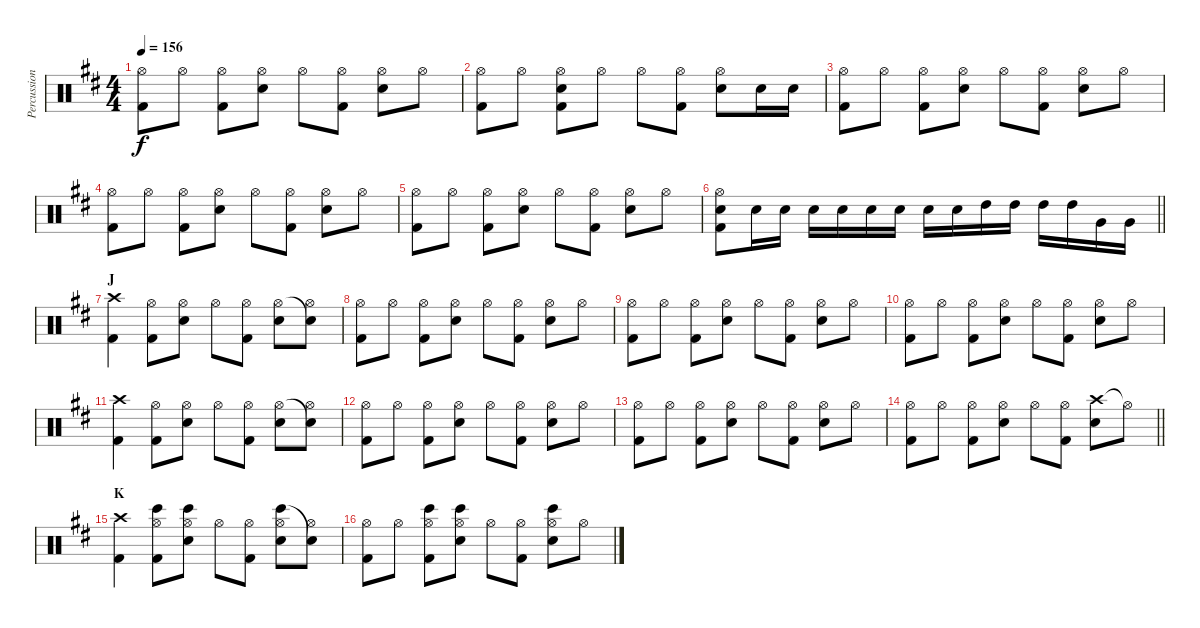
\track ("Percussion" "Percussion") {instrument percussion}
\staff {score}
\articulation defaults
\ts (4 4)
\tempo 156
\clef neutral
\ks d
("Hi-Hat (open)" "Kick (hit) 2").8{dy f} "Hi-Hat (open)".8 ("Hi-Hat (open)" "Kick (hit) 2").8 ("Hi-Hat (open)" "Electric Snare (hit)").8 "Hi-Hat (open)".8 ("Hi-Hat (open)" "Kick (hit) 2").8 ("Hi-Hat (open)" "Electric Snare (hit)").8 "Hi-Hat (open)".8 |
("Hi-Hat (open)" "Kick (hit) 2").8 "Hi-Hat (open)".8 ("Hi-Hat (open)" "Electric Snare (hit)" "Kick (hit) 2").8 "Hi-Hat (open)".8 "Hi-Hat (open)".8 ("Hi-Hat (open)" "Kick (hit) 2").8 ("Hi-Hat (open)" "Electric Snare (hit)").8 "Electric Snare (hit)".16 "Electric Snare (hit)".16 |
("Hi-Hat (open)" "Kick (hit) 2").8 "Hi-Hat (open)".8 ("Hi-Hat (open)" "Kick (hit) 2").8 ("Hi-Hat (open)" "Electric Snare (hit)").8 "Hi-Hat (open)".8 ("Hi-Hat (open)" "Kick (hit) 2").8 ("Hi-Hat (open)" "Electric Snare (hit)").8 "Hi-Hat (open)".8 |
("Hi-Hat (open)" "Kick (hit) 2").8 "Hi-Hat (open)".8 ("Hi-Hat (open)" "Kick (hit) 2").8 ("Hi-Hat (open)" "Electric Snare (hit)").8 "Hi-Hat (open)".8 ("Hi-Hat (open)" "Kick (hit) 2").8 ("Hi-Hat (open)" "Electric Snare (hit)").8 "Hi-Hat (open)".8 |
("Hi-Hat (open)" "Kick (hit) 2").8 "Hi-Hat (open)".8 ("Hi-Hat (open)" "Kick (hit) 2").8 ("Hi-Hat (open)" "Electric Snare (hit)").8 "Hi-Hat (open)".8 ("Hi-Hat (open)" "Kick (hit) 2").8 ("Hi-Hat (open)" "Electric Snare (hit)").8 "Hi-Hat (open)".8 |
\barLineRight lightlight
("Hi-Hat (open)" "Electric Snare (hit)" "Kick (hit) 2").8 "Electric Snare (hit)".16 "Electric Snare (hit)".16 "Electric Snare (hit)".16 "Electric Snare (hit)".16 "Electric Snare (hit)".16 "Electric Snare (hit)".16 "Electric Snare (hit)".16 "Electric Snare (hit)".16 "High Tom (hit)".16 "High Tom (hit)".16 "High Tom (hit)".16 "High Tom (hit)".16 "Very Low Tom (hit)".16 "Very Low Tom (hit)".16 |
\section ("" "J")
("Crash high (hit)" "Kick (hit) 2").4 ("Hi-Hat (open)" "Kick (hit) 2").8 ("Hi-Hat (open)" "Electric Snare (hit)").8 "Hi-Hat (open)".8 ("Hi-Hat (open)" "Kick (hit) 2").8 ("Hi-Hat (open)" "Electric Snare (hit)").8 ("Snare (hit)"{t} "Hi-Hat (open)").8 |
("Hi-Hat (open)" "Kick (hit) 2").8 "Hi-Hat (open)".8 ("Hi-Hat (open)" "Kick (hit) 2").8 ("Hi-Hat (open)" "Electric Snare (hit)").8 "Hi-Hat (open)".8 ("Hi-Hat (open)" "Kick (hit) 2").8 ("Hi-Hat (open)" "Electric Snare (hit)").8 "Hi-Hat (open)".8 |
("Hi-Hat (open)" "Kick (hit) 2").8 "Hi-Hat (open)".8 ("Hi-Hat (open)" "Kick (hit) 2").8 ("Hi-Hat (open)" "Electric Snare (hit)").8 "Hi-Hat (open)".8 ("Hi-Hat (open)" "Kick (hit) 2").8 ("Hi-Hat (open)" "Electric Snare (hit)").8 "Hi-Hat (open)".8 |
("Hi-Hat (open)" "Kick (hit) 2").8 "Hi-Hat (open)".8 ("Hi-Hat (open)" "Kick (hit) 2").8 ("Hi-Hat (open)" "Electric Snare (hit)").8 "Hi-Hat (open)".8 ("Hi-Hat (open)" "Kick (hit) 2").8 ("Hi-Hat (open)" "Electric Snare (hit)").8 "Hi-Hat (open)".8 |
("Crash high (hit)" "Kick (hit) 2").4 ("Hi-Hat (open)" "Kick (hit) 2").8 ("Hi-Hat (open)" "Electric Snare (hit)").8 "Hi-Hat (open)".8 ("Hi-Hat (open)" "Kick (hit) 2").8 ("Hi-Hat (open)" "Electric Snare (hit)").8 ("Snare (hit)"{t} "Hi-Hat (open)").8 |
("Hi-Hat (open)" "Kick (hit) 2").8 "Hi-Hat (open)".8 ("Hi-Hat (open)" "Kick (hit) 2").8 ("Hi-Hat (open)" "Electric Snare (hit)").8 "Hi-Hat (open)".8 ("Hi-Hat (open)" "Kick (hit) 2").8 ("Hi-Hat (open)" "Electric Snare (hit)").8 "Hi-Hat (open)".8 |
("Hi-Hat (open)" "Kick (hit) 2").8 "Hi-Hat (open)".8 ("Hi-Hat (open)" "Kick (hit) 2").8 ("Hi-Hat (open)" "Electric Snare (hit)").8 "Hi-Hat (open)".8 ("Hi-Hat (open)" "Kick (hit) 2").8 ("Hi-Hat (open)" "Electric Snare (hit)").8 "Hi-Hat (open)".8 |
\barLineRight lightlight
("Hi-Hat (open)" "Kick (hit) 2").8 "Hi-Hat (open)".8 ("Hi-Hat (open)" "Kick (hit) 2").8 ("Hi-Hat (open)" "Electric Snare (hit)").8 "Hi-Hat (open)".8 ("Hi-Hat (open)" "Kick (hit) 2").8 ("Crash high (hit)" "Electric Snare (hit)").8 "Hi-Hat (open)"{t}.8 |
\section ("" "K")
("Crash high (hit)" "Kick (hit) 2").4 ("Bongo High (hit)" "Hi-Hat (open)" "Kick (hit) 2").8 ("Bongo High (hit)" "Hi-Hat (open)" "Electric Snare (hit)").8 "Hi-Hat (open)".8 ("Hi-Hat (open)" "Kick (hit) 2").8 ("Bongo High (hit)" "Hi-Hat (open)" "Electric Snare (hit)").8 ("Snare (hit)"{t} "Hi-Hat (open)").8 |
("Hi-Hat (open)" "Kick (hit) 2").8 "Hi-Hat (open)".8 ("Bongo High (hit)" "Hi-Hat (open)" "Kick (hit) 2").8 ("Bongo High (hit)" "Hi-Hat (open)" "Electric Snare (hit)").8 "Hi-Hat (open)".8 ("Hi-Hat (open)" "Kick (hit) 2").8 ("Bongo High (hit)" "Hi-Hat (open)" "Electric Snare (hit)").8 "Hi-Hat (open)".8
